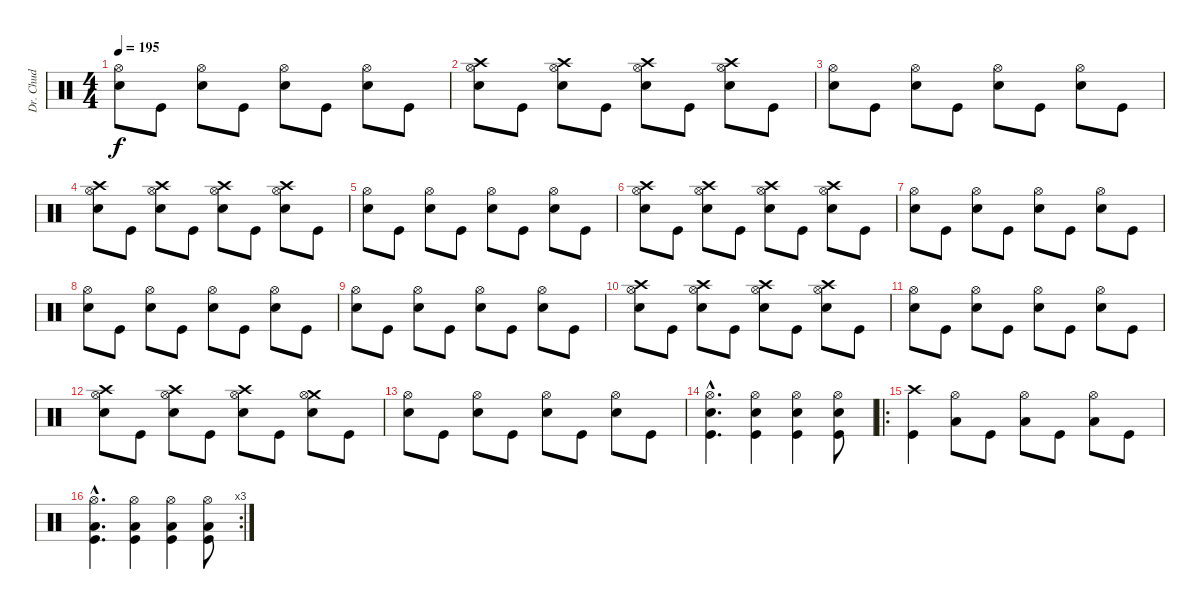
\track ("Dr. Chud" "Dr. Chud") {instrument percussion}
\staff {score}
\articulation defaults
\ts (4 4)
\tempo 195
\clef neutral
\ks c
("Hi-Hat (open)" "Snare (hit) 2").8{dy f} "Kick (hit)".8 ("Hi-Hat (open)" "Snare (hit) 2").8 "Kick (hit)".8 ("Hi-Hat (open)" "Snare (hit) 2").8 "Kick (hit)".8 ("Hi-Hat (open)" "Snare (hit) 2").8 "Kick (hit)".8 |
("Crash high (hit)" "Hi-Hat (open)" "Snare (hit) 2").8 "Kick (hit)".8 ("Crash high (hit)" "Hi-Hat (open)" "Snare (hit) 2").8 "Kick (hit)".8 ("Crash high (hit)" "Hi-Hat (open)" "Snare (hit) 2").8 "Kick (hit)".8 ("Crash high (hit)" "Hi-Hat (open)" "Snare (hit) 2").8 "Kick (hit)".8 |
("Hi-Hat (open)" "Snare (hit) 2").8 "Kick (hit)".8 ("Hi-Hat (open)" "Snare (hit) 2").8 "Kick (hit)".8 ("Hi-Hat (open)" "Snare (hit) 2").8 "Kick (hit)".8 ("Hi-Hat (open)" "Snare (hit) 2").8 "Kick (hit)".8 |
("Crash high (hit)" "Hi-Hat (open)" "Snare (hit) 2").8 "Kick (hit)".8 ("Crash high (hit)" "Hi-Hat (open)" "Snare (hit) 2").8 "Kick (hit)".8 ("Crash high (hit)" "Hi-Hat (open)" "Snare (hit) 2").8 "Kick (hit)".8 ("Crash high (hit)" "Hi-Hat (open)" "Snare (hit) 2").8 "Kick (hit)".8 |
("Hi-Hat (open)" "Snare (hit) 2").8 "Kick (hit)".8 ("Hi-Hat (open)" "Snare (hit) 2").8 "Kick (hit)".8 ("Hi-Hat (open)" "Snare (hit) 2").8 "Kick (hit)".8 ("Hi-Hat (open)" "Snare (hit) 2").8 "Kick (hit)".8 |
("Crash high (hit)" "Hi-Hat (open)" "Snare (hit) 2").8 "Kick (hit)".8 ("Crash high (hit)" "Hi-Hat (open)" "Snare (hit) 2").8 "Kick (hit)".8 ("Crash high (hit)" "Hi-Hat (open)" "Snare (hit) 2").8 "Kick (hit)".8 ("Crash high (hit)" "Hi-Hat (open)" "Snare (hit) 2").8 "Kick (hit)".8 |
("Hi-Hat (open)" "Snare (hit) 2").8 "Kick (hit)".8 ("Hi-Hat (open)" "Snare (hit) 2").8 "Kick (hit)".8 ("Hi-Hat (open)" "Snare (hit) 2").8 "Kick (hit)".8 ("Hi-Hat (open)" "Snare (hit) 2").8 "Kick (hit)".8 |
("Hi-Hat (open)" "Snare (hit) 2").8 "Kick (hit)".8 ("Hi-Hat (open)" "Snare (hit) 2").8 "Kick (hit)".8 ("Hi-Hat (open)" "Snare (hit) 2").8 "Kick (hit)".8 ("Hi-Hat (open)" "Snare (hit) 2").8 "Kick (hit)".8 |
("Hi-Hat (open)" "Snare (hit) 2").8 "Kick (hit)".8 ("Hi-Hat (open)" "Snare (hit) 2").8 "Kick (hit)".8 ("Hi-Hat (open)" "Snare (hit) 2").8 "Kick (hit)".8 ("Hi-Hat (open)" "Snare (hit) 2").8 "Kick (hit)".8 |
("Crash high (hit)" "Hi-Hat (open)" "Snare (hit) 2").8 "Kick (hit)".8 ("Crash high (hit)" "Hi-Hat (open)" "Snare (hit) 2").8 "Kick (hit)".8 ("Crash high (hit)" "Hi-Hat (open)" "Snare (hit) 2").8 "Kick (hit)".8 ("Crash high (hit)" "Hi-Hat (open)" "Snare (hit) 2").8 "Kick (hit)".8 |
("Hi-Hat (open)" "Snare (hit) 2").8 "Kick (hit)".8 ("Hi-Hat (open)" "Snare (hit) 2").8 "Kick (hit)".8 ("Hi-Hat (open)" "Snare (hit) 2").8 "Kick (hit)".8 ("Hi-Hat (open)" "Snare (hit) 2").8 "Kick (hit)".8 |
("Crash high (hit)" "Hi-Hat (open)" "Snare (hit) 2").8 "Kick (hit)".8 ("Crash high (hit)" "Hi-Hat (open)" "Snare (hit) 2").8 "Kick (hit)".8 ("Crash high (hit)" "Hi-Hat (open)" "Snare (hit) 2").8 "Kick (hit)".8 ("Crash medium (hit)" "Hi-Hat (open)" "Snare (hit) 2").8 "Kick (hit)".8 |
("Hi-Hat (open)" "Snare (hit) 2").8 "Kick (hit)".8 ("Hi-Hat (open)" "Snare (hit) 2").8 "Kick (hit)".8 ("Hi-Hat (open)" "Snare (hit) 2").8 "Kick (hit)".8 ("Hi-Hat (open)" "Snare (hit) 2").8 "Kick (hit)".8 |
("Hi-Hat (open)"{hac} "Snare (hit) 2"{hac} "Kick (hit)"{hac}).4{d} ("Hi-Hat (open)" "Snare (hit) 2" "Kick (hit)").4 ("Hi-Hat (open)" "Snare (hit) 2" "Kick (hit)").4 ("Hi-Hat (open)" "Snare (hit) 2" "Kick (hit)").8 |
\ro
("Crash high (hit)" "Kick (hit)").4 ("Hi-Hat (open)" "Low Floor Tom (hit)").8 "Kick (hit)".8 ("Hi-Hat (open)" "Low Floor Tom (hit)").8 "Kick (hit)".8 ("Hi-Hat (open)" "Low Floor Tom (hit)").8 "Kick (hit)".8 |
\rc 3
("Hi-Hat (open)"{hac} "Low Floor Tom (hit)"{hac} "Kick (hit)"{hac}).4{d} ("Hi-Hat (open)" "Low Floor Tom (hit)" "Kick (hit)").4 ("Hi-Hat (open)" "Low Floor Tom (hit)" "Kick (hit)").4 ("Hi-Hat (open)" "Low Floor Tom (hit)" "Kick (hit)").8
